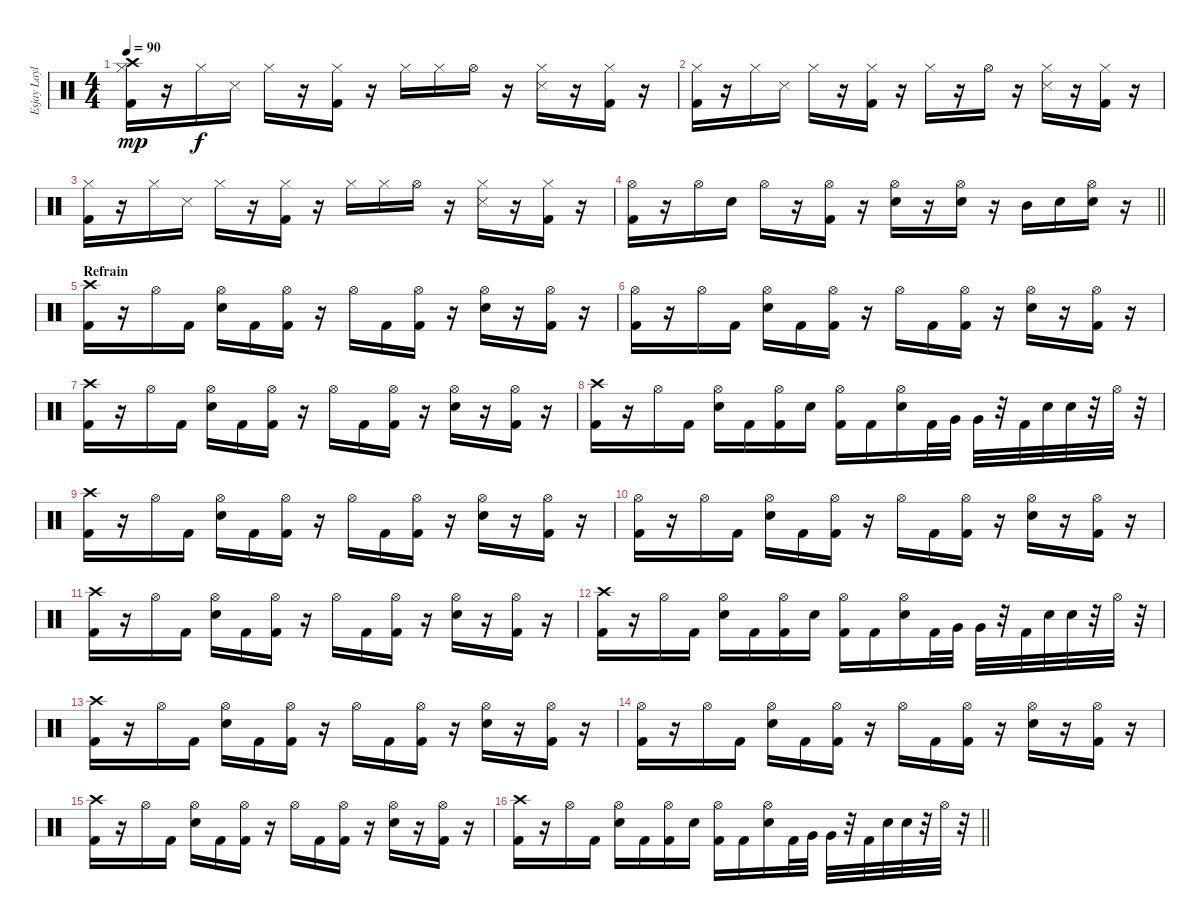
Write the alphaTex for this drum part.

\track ("Esjay Laylo's Drums" "Esjay Layl") {instrument percussion}
\staff {score}
\articulation defaults
\ts (4 4)
\tempo 90
\clef neutral
\ks c
("Hi-Hat (closed)" "Kick (hit) 2" "Crash high (hit)").16{dy mp} r.16 "Hi-Hat (closed)".16{dy f} "Snare (side stick) 3".16 "Hi-Hat (closed)".16 r.16 ("Hi-Hat (closed)" "Kick (hit) 2").16 r.16 "Hi-Hat (closed)".16 "Hi-Hat (closed)".16 "Hi-Hat (open)".16 r.16 ("Hi-Hat (closed)" "Snare (side stick) 3").16 r.16 ("Hi-Hat (closed)" "Kick (hit) 2").16 r.16 |
("Hi-Hat (closed)" "Kick (hit) 2").16 r.16 "Hi-Hat (closed)".16 "Snare (side stick) 3".16 "Hi-Hat (closed)".16 r.16 ("Hi-Hat (closed)" "Kick (hit) 2").16 r.16 "Hi-Hat (closed)".16 r.16 "Hi-Hat (open)".16 r.16 ("Hi-Hat (closed)" "Snare (side stick) 3").16 r.16 ("Hi-Hat (closed)" "Kick (hit) 2").16 r.16 |
("Hi-Hat (closed)" "Kick (hit) 2").16 r.16 "Hi-Hat (closed)".16 "Snare (side stick) 3".16 "Hi-Hat (closed)".16 r.16 ("Hi-Hat (closed)" "Kick (hit) 2").16 r.16 "Hi-Hat (closed)".16 "Hi-Hat (closed)".16 "Hi-Hat (open)".16 r.16 ("Hi-Hat (closed)" "Snare (side stick) 3").16 r.16 ("Hi-Hat (closed)" "Kick (hit) 2").16 r.16 |
\barLineRight lightlight
("Hi-Hat (open)" "Kick (hit) 2").16 r.16 "Hi-Hat (open)".16 "Snare (hit) 2".16 "Hi-Hat (open)".16 r.16 ("Hi-Hat (open)" "Kick (hit) 2").16 r.16 ("Hi-Hat (open)" "Snare (hit) 2").16 r.16 ("Hi-Hat (open)" "Snare (hit) 2").16 r.16 "Mid Tom (hit)".16 "Snare (hit) 2".16 ("Hi-Hat (open)" "Snare (hit) 2").16 r.16 |
\section ("" "Refrain")
("Crash high (hit)" "Kick (hit) 2").16 r.16 "Hi-Hat (open)".16 "Kick (hit) 2".16 ("Hi-Hat (open)" "Snare (hit) 2").16 "Kick (hit) 2".16 ("Hi-Hat (open)" "Kick (hit) 2").16 r.16 "Hi-Hat (open)".16 "Kick (hit) 2".16 ("Hi-Hat (open)" "Kick (hit) 2").16 r.16 ("Hi-Hat (open)" "Snare (hit) 2").16 r.16 ("Hi-Hat (open)" "Kick (hit) 2").16 r.16 |
("Hi-Hat (open)" "Kick (hit) 2").16 r.16 "Hi-Hat (open)".16 "Kick (hit) 2".16 ("Hi-Hat (open)" "Snare (hit) 2").16 "Kick (hit) 2".16 ("Hi-Hat (open)" "Kick (hit) 2").16 r.16 "Hi-Hat (open)".16 "Kick (hit) 2".16 ("Hi-Hat (open)" "Kick (hit) 2").16 r.16 ("Hi-Hat (open)" "Snare (hit) 2").16 r.16 ("Hi-Hat (open)" "Kick (hit) 2").16 r.16 |
("Crash high (hit)" "Kick (hit) 2").16 r.16 "Hi-Hat (open)".16 "Kick (hit) 2".16 ("Hi-Hat (open)" "Snare (hit) 2").16 "Kick (hit) 2".16 ("Hi-Hat (open)" "Kick (hit) 2").16 r.16 "Hi-Hat (open)".16 "Kick (hit) 2".16 ("Hi-Hat (open)" "Kick (hit) 2").16 r.16 ("Hi-Hat (open)" "Snare (hit) 2").16 r.16 ("Hi-Hat (open)" "Kick (hit) 2").16 r.16 |
("Crash high (hit)" "Kick (hit) 2").16 r.16 "Hi-Hat (open)".16 "Kick (hit) 2".16 ("Hi-Hat (open)" "Snare (hit) 2").16 "Kick (hit) 2".16 ("Hi-Hat (open)" "Kick (hit) 2").16 "Snare (hit) 2".16 ("Hi-Hat (open)" "Kick (hit) 2").16 "Kick (hit) 2".16 ("Hi-Hat (open)" "Snare (hit) 2").16 "Kick (hit) 2".32 "Very Low Tom (hit)".32 "Very Low Tom (hit)".32 r.32 "Kick (hit) 2".32 "Snare (hit) 2".32 "Snare (hit) 2".32 r.32 "Hi-Hat (open)".32 r.32 |
("Crash high (hit)" "Kick (hit) 2").16 r.16 "Hi-Hat (open)".16 "Kick (hit) 2".16 ("Hi-Hat (open)" "Snare (hit) 2").16 "Kick (hit) 2".16 ("Hi-Hat (open)" "Kick (hit) 2").16 r.16 "Hi-Hat (open)".16 "Kick (hit) 2".16 ("Hi-Hat (open)" "Kick (hit) 2").16 r.16 ("Hi-Hat (open)" "Snare (hit) 2").16 r.16 ("Hi-Hat (open)" "Kick (hit) 2").16 r.16 |
("Hi-Hat (open)" "Kick (hit) 2").16 r.16 "Hi-Hat (open)".16 "Kick (hit) 2".16 ("Hi-Hat (open)" "Snare (hit) 2").16 "Kick (hit) 2".16 ("Hi-Hat (open)" "Kick (hit) 2").16 r.16 "Hi-Hat (open)".16 "Kick (hit) 2".16 ("Hi-Hat (open)" "Kick (hit) 2").16 r.16 ("Hi-Hat (open)" "Snare (hit) 2").16 r.16 ("Hi-Hat (open)" "Kick (hit) 2").16 r.16 |
("Crash high (hit)" "Kick (hit) 2").16 r.16 "Hi-Hat (open)".16 "Kick (hit) 2".16 ("Hi-Hat (open)" "Snare (hit) 2").16 "Kick (hit) 2".16 ("Hi-Hat (open)" "Kick (hit) 2").16 r.16 "Hi-Hat (open)".16 "Kick (hit) 2".16 ("Hi-Hat (open)" "Kick (hit) 2").16 r.16 ("Hi-Hat (open)" "Snare (hit) 2").16 r.16 ("Hi-Hat (open)" "Kick (hit) 2").16 r.16 |
("Crash high (hit)" "Kick (hit) 2").16 r.16 "Hi-Hat (open)".16 "Kick (hit) 2".16 ("Hi-Hat (open)" "Snare (hit) 2").16 "Kick (hit) 2".16 ("Hi-Hat (open)" "Kick (hit) 2").16 "Snare (hit) 2".16 ("Hi-Hat (open)" "Kick (hit) 2").16 "Kick (hit) 2".16 ("Hi-Hat (open)" "Snare (hit) 2").16 "Kick (hit) 2".32 "Very Low Tom (hit)".32 "Very Low Tom (hit)".32 r.32 "Kick (hit) 2".32 "Snare (hit) 2".32 "Snare (hit) 2".32 r.32 "Hi-Hat (open)".32 r.32 |
("Crash high (hit)" "Kick (hit) 2").16 r.16 "Hi-Hat (open)".16 "Kick (hit) 2".16 ("Hi-Hat (open)" "Snare (hit) 2").16 "Kick (hit) 2".16 ("Hi-Hat (open)" "Kick (hit) 2").16 r.16 "Hi-Hat (open)".16 "Kick (hit) 2".16 ("Hi-Hat (open)" "Kick (hit) 2").16 r.16 ("Hi-Hat (open)" "Snare (hit) 2").16 r.16 ("Hi-Hat (open)" "Kick (hit) 2").16 r.16 |
("Hi-Hat (open)" "Kick (hit) 2").16 r.16 "Hi-Hat (open)".16 "Kick (hit) 2".16 ("Hi-Hat (open)" "Snare (hit) 2").16 "Kick (hit) 2".16 ("Hi-Hat (open)" "Kick (hit) 2").16 r.16 "Hi-Hat (open)".16 "Kick (hit) 2".16 ("Hi-Hat (open)" "Kick (hit) 2").16 r.16 ("Hi-Hat (open)" "Snare (hit) 2").16 r.16 ("Hi-Hat (open)" "Kick (hit) 2").16 r.16 |
("Crash high (hit)" "Kick (hit) 2").16 r.16 "Hi-Hat (open)".16 "Kick (hit) 2".16 ("Hi-Hat (open)" "Snare (hit) 2").16 "Kick (hit) 2".16 ("Hi-Hat (open)" "Kick (hit) 2").16 r.16 "Hi-Hat (open)".16 "Kick (hit) 2".16 ("Hi-Hat (open)" "Kick (hit) 2").16 r.16 ("Hi-Hat (open)" "Snare (hit) 2").16 r.16 ("Hi-Hat (open)" "Kick (hit) 2").16 r.16 |
\barLineRight lightlight
("Crash high (hit)" "Kick (hit) 2").16 r.16 "Hi-Hat (open)".16 "Kick (hit) 2".16 ("Hi-Hat (open)" "Snare (hit) 2").16 "Kick (hit) 2".16 ("Hi-Hat (open)" "Kick (hit) 2").16 "Snare (hit) 2".16 ("Hi-Hat (open)" "Kick (hit) 2").16 "Kick (hit) 2".16 ("Hi-Hat (open)" "Snare (hit) 2").16 "Kick (hit) 2".32 "Very Low Tom (hit)".32 "Very Low Tom (hit)".32 r.32 "Kick (hit) 2".32 "Snare (hit) 2".32 "Snare (hit) 2".32 r.32 "Hi-Hat (open)".32 r.32
